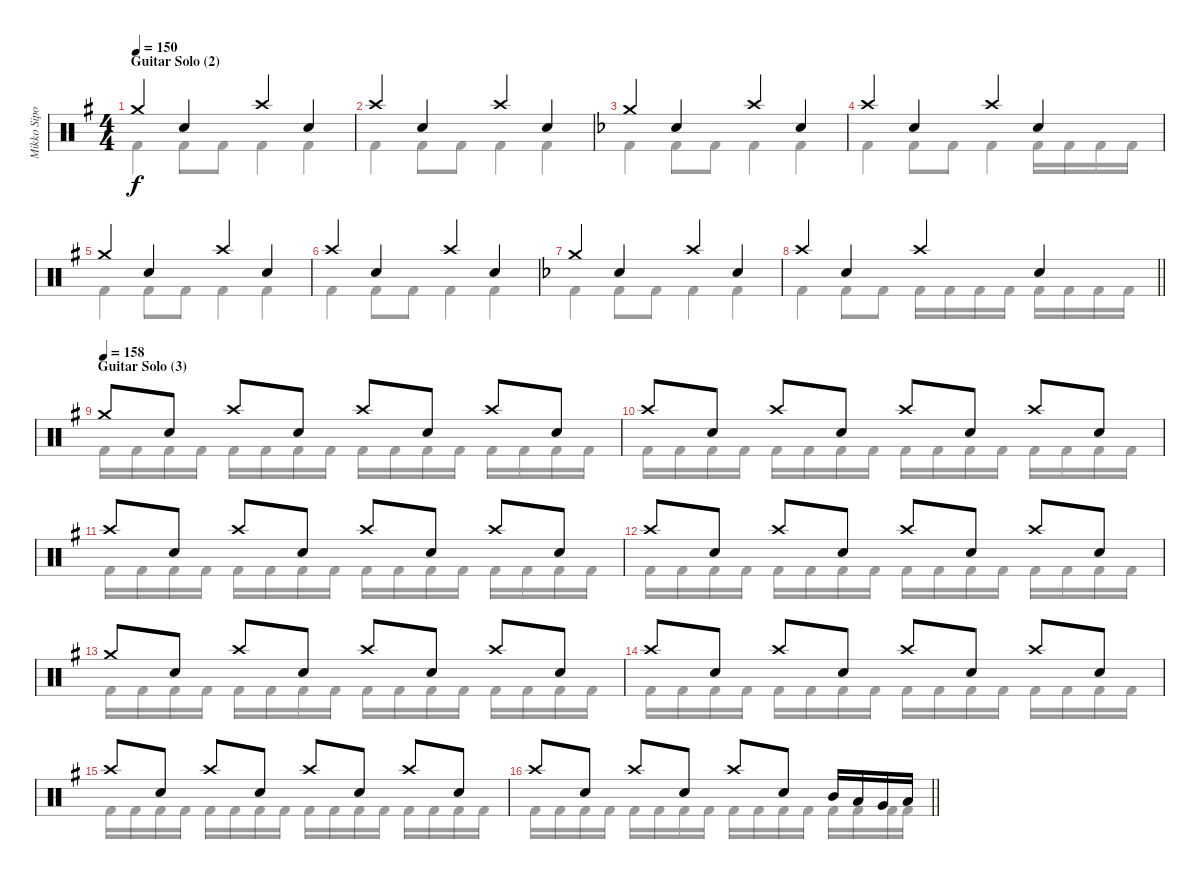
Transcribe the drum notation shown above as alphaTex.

\track ("Mikko Sipola (drums)" "Mikko Sipo") {instrument percussion}
\staff {score}
\articulation defaults
\voice
\ts (4 4)
\section ("" "Guitar Solo (2)")
\tempo 150
\clef neutral
\ks eminor "Crash medium (hit)".4{dy f} "Electric Snare (hit)".4 "Crash high (hit)".4 "Electric Snare (hit)".4
|
"Crash high (hit)".4 "Electric Snare (hit)".4 "Crash high (hit)".4 "Electric Snare (hit)".4 |
\ks dminor "Crash medium (hit)".4 "Electric Snare (hit)".4 "Crash high (hit)".4 "Electric Snare (hit)".4
|
"Crash high (hit)".4 "Electric Snare (hit)".4 "Crash high (hit)".4 "Electric Snare (hit)".4 |
\ks eminor "Crash medium (hit)".4 "Electric Snare (hit)".4 "Crash high (hit)".4 "Electric Snare (hit)".4
|
"Crash high (hit)".4 "Electric Snare (hit)".4 "Crash high (hit)".4 "Electric Snare (hit)".4 |
\ks dminor "Crash medium (hit)".4 "Electric Snare (hit)".4 "Crash high (hit)".4 "Electric Snare (hit)".4
|
\barLineRight lightlight "Crash high (hit)".4 "Electric Snare (hit)".4 "Crash high (hit)".4 "Electric Snare (hit)".4
|
\section ("" "Guitar Solo (3)")
\tempo 158
\ks eminor "Crash medium (hit)".8 "Electric Snare (hit)".8 "Crash high (hit)".8 "Electric Snare (hit)".8 "Crash high (hit)".8 "Electric Snare (hit)".8 "Crash high (hit)".8 "Electric Snare (hit)".8
|
"Crash high (hit)".8 "Electric Snare (hit)".8 "Crash high (hit)".8 "Electric Snare (hit)".8 "Crash high (hit)".8 "Electric Snare (hit)".8 "Crash high (hit)".8 "Electric Snare (hit)".8 |
"Crash high (hit)".8 "Electric Snare (hit)".8 "Crash high (hit)".8 "Electric Snare (hit)".8 "Crash high (hit)".8 "Electric Snare (hit)".8 "Crash high (hit)".8 "Electric Snare (hit)".8 |
"Crash high (hit)".8 "Electric Snare (hit)".8 "Crash high (hit)".8 "Electric Snare (hit)".8 "Crash high (hit)".8 "Electric Snare (hit)".8 "Crash high (hit)".8 "Electric Snare (hit)".8 |
"Crash medium (hit)".8 "Electric Snare (hit)".8 "Crash high (hit)".8 "Electric Snare (hit)".8 "Crash high (hit)".8 "Electric Snare (hit)".8 "Crash high (hit)".8 "Electric Snare (hit)".8 |
"Crash high (hit)".8 "Electric Snare (hit)".8 "Crash high (hit)".8 "Electric Snare (hit)".8 "Crash high (hit)".8 "Electric Snare (hit)".8 "Crash high (hit)".8 "Electric Snare (hit)".8 |
"Crash high (hit)".8 "Electric Snare (hit)".8 "Crash high (hit)".8 "Electric Snare (hit)".8 "Crash high (hit)".8 "Electric Snare (hit)".8 "Crash high (hit)".8 "Electric Snare (hit)".8 |
\barLineRight lightlight "Crash high (hit)".8 "Electric Snare (hit)".8 "Crash high (hit)".8 "Electric Snare (hit)".8 "Crash high (hit)".8 "Electric Snare (hit)".8 "Mid Tom (hit)".16 "Low Tom (hit)".16 "Very Low Tom (hit)".16 "Low Floor Tom (hit)".16
\voice
\clef neutral
\ottava regular
\simile none
\ks eminor "Kick (hit) 2".4{dy f} "Kick (hit) 2".8 "Kick (hit) 2".8 "Kick (hit) 2".4 "Kick (hit) 2".4
|
"Kick (hit) 2".4 "Kick (hit) 2".8 "Kick (hit) 2".8 "Kick (hit) 2".4 "Kick (hit) 2".4 |
\ks dminor "Kick (hit) 2".4 "Kick (hit) 2".8 "Kick (hit) 2".8 "Kick (hit) 2".4 "Kick (hit) 2".4
|
"Kick (hit) 2".4 "Kick (hit) 2".8 "Kick (hit) 2".8 "Kick (hit) 2".4 "Kick (hit) 2".16 "Kick (hit) 2".16 "Kick (hit) 2".16 "Kick (hit) 2".16 |
\ks eminor "Kick (hit) 2".4 "Kick (hit) 2".8 "Kick (hit) 2".8 "Kick (hit) 2".4 "Kick (hit) 2".4
|
"Kick (hit) 2".4 "Kick (hit) 2".8 "Kick (hit) 2".8 "Kick (hit) 2".4 "Kick (hit) 2".4 |
\ks dminor "Kick (hit) 2".4 "Kick (hit) 2".8 "Kick (hit) 2".8 "Kick (hit) 2".4 "Kick (hit) 2".4
|
\barLineRight lightlight "Kick (hit) 2".4 "Kick (hit) 2".8 "Kick (hit) 2".8 "Kick (hit) 2".16 "Kick (hit) 2".16 "Kick (hit) 2".16 "Kick (hit) 2".16 "Kick (hit) 2".16 "Kick (hit) 2".16 "Kick (hit) 2".16 "Kick (hit) 2".16
|
\ks eminor "Kick (hit) 2".16 "Kick (hit) 2".16 "Kick (hit) 2".16 "Kick (hit) 2".16 "Kick (hit) 2".16 "Kick (hit) 2".16 "Kick (hit) 2".16 "Kick (hit) 2".16 "Kick (hit) 2".16 "Kick (hit) 2".16 "Kick (hit) 2".16 "Kick (hit) 2".16 "Kick (hit) 2".16 "Kick (hit) 2".16 "Kick (hit) 2".16 "Kick (hit) 2".16
|
"Kick (hit) 2".16 "Kick (hit) 2".16 "Kick (hit) 2".16 "Kick (hit) 2".16 "Kick (hit) 2".16 "Kick (hit) 2".16 "Kick (hit) 2".16 "Kick (hit) 2".16 "Kick (hit) 2".16 "Kick (hit) 2".16 "Kick (hit) 2".16 "Kick (hit) 2".16 "Kick (hit) 2".16 "Kick (hit) 2".16 "Kick (hit) 2".16 "Kick (hit) 2".16 |
"Kick (hit) 2".16 "Kick (hit) 2".16 "Kick (hit) 2".16 "Kick (hit) 2".16 "Kick (hit) 2".16 "Kick (hit) 2".16 "Kick (hit) 2".16 "Kick (hit) 2".16 "Kick (hit) 2".16 "Kick (hit) 2".16 "Kick (hit) 2".16 "Kick (hit) 2".16 "Kick (hit) 2".16 "Kick (hit) 2".16 "Kick (hit) 2".16 "Kick (hit) 2".16 |
"Kick (hit) 2".16 "Kick (hit) 2".16 "Kick (hit) 2".16 "Kick (hit) 2".16 "Kick (hit) 2".16 "Kick (hit) 2".16 "Kick (hit) 2".16 "Kick (hit) 2".16 "Kick (hit) 2".16 "Kick (hit) 2".16 "Kick (hit) 2".16 "Kick (hit) 2".16 "Kick (hit) 2".16 "Kick (hit) 2".16 "Kick (hit) 2".16 "Kick (hit) 2".16 |
"Kick (hit) 2".16 "Kick (hit) 2".16 "Kick (hit) 2".16 "Kick (hit) 2".16 "Kick (hit) 2".16 "Kick (hit) 2".16 "Kick (hit) 2".16 "Kick (hit) 2".16 "Kick (hit) 2".16 "Kick (hit) 2".16 "Kick (hit) 2".16 "Kick (hit) 2".16 "Kick (hit) 2".16 "Kick (hit) 2".16 "Kick (hit) 2".16 "Kick (hit) 2".16 |
"Kick (hit) 2".16 "Kick (hit) 2".16 "Kick (hit) 2".16 "Kick (hit) 2".16 "Kick (hit) 2".16 "Kick (hit) 2".16 "Kick (hit) 2".16 "Kick (hit) 2".16 "Kick (hit) 2".16 "Kick (hit) 2".16 "Kick (hit) 2".16 "Kick (hit) 2".16 "Kick (hit) 2".16 "Kick (hit) 2".16 "Kick (hit) 2".16 "Kick (hit) 2".16 |
"Kick (hit) 2".16 "Kick (hit) 2".16 "Kick (hit) 2".16 "Kick (hit) 2".16 "Kick (hit) 2".16 "Kick (hit) 2".16 "Kick (hit) 2".16 "Kick (hit) 2".16 "Kick (hit) 2".16 "Kick (hit) 2".16 "Kick (hit) 2".16 "Kick (hit) 2".16 "Kick (hit) 2".16 "Kick (hit) 2".16 "Kick (hit) 2".16 "Kick (hit) 2".16 |
\barLineRight lightlight "Kick (hit) 2".16 "Kick (hit) 2".16 "Kick (hit) 2".16 "Kick (hit) 2".16 "Kick (hit) 2".16 "Kick (hit) 2".16 "Kick (hit) 2".16 "Kick (hit) 2".16 "Kick (hit) 2".16 "Kick (hit) 2".16 "Kick (hit) 2".16 "Kick (hit) 2".16 "Kick (hit) 2".16 "Kick (hit) 2".16 "Kick (hit) 2".16 "Kick (hit) 2".16
